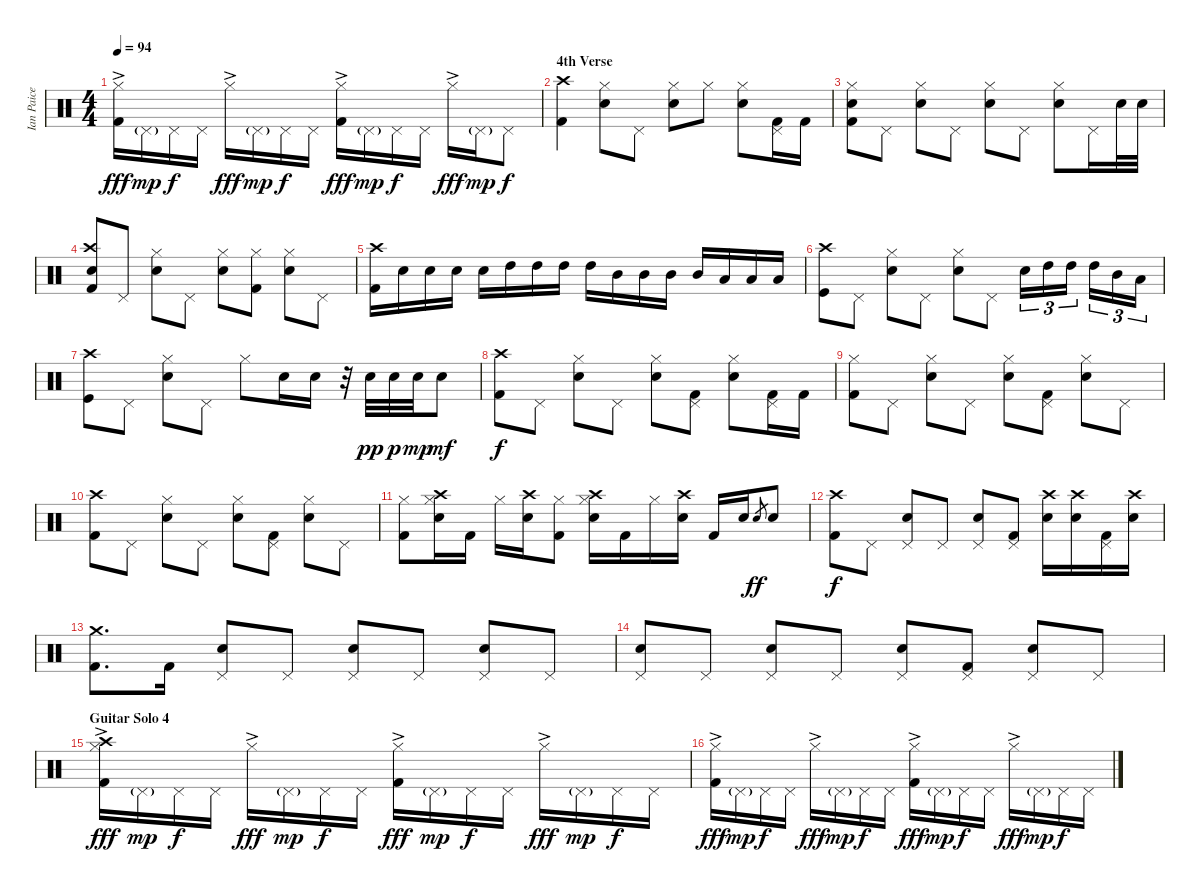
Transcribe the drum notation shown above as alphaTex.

\track ("Ian Paice (Drums)" "Ian Paice ") {instrument percussion}
\staff {score}
\articulation defaults
\ts (4 4)
\tempo 94
\clef neutral
\ks c
("Hi-Hat (closed)"{ac} "Kick (hit) 2").16{dy fff} "Pedal Hi-Hat (hit)"{g}.16{dy mp} "Pedal Hi-Hat (hit)".16{dy f} "Pedal Hi-Hat (hit)".16 "Hi-Hat (closed)"{ac}.16{dy fff} "Pedal Hi-Hat (hit)"{g}.16{dy mp} "Pedal Hi-Hat (hit)".16{dy f} "Pedal Hi-Hat (hit)".16 ("Hi-Hat (closed)"{ac} "Kick (hit) 2").16{dy fff} "Pedal Hi-Hat (hit)"{g}.16{dy mp} "Pedal Hi-Hat (hit)".16{dy f} "Pedal Hi-Hat (hit)".16 "Hi-Hat (closed)"{ac}.16{dy fff} "Pedal Hi-Hat (hit)"{g}.16{dy mp} "Pedal Hi-Hat (hit)".8{dy f} |
\section ("" "4th Verse")
("Crash high (hit)" "Kick (hit) 2").4 ("Hi-Hat (closed)" "Electric Snare (hit)").8 "Pedal Hi-Hat (hit)".8 ("Hi-Hat (closed)" "Electric Snare (hit)").8 "Hi-Hat (closed)".8 ("Hi-Hat (closed)" "Electric Snare (hit)").8 ("Pedal Hi-Hat (hit)" "Kick (hit) 2").16 "Kick (hit) 2".16 |
("Hi-Hat (closed)" "Electric Snare (hit)" "Kick (hit) 2").8 "Pedal Hi-Hat (hit)".8 ("Hi-Hat (closed)" "Electric Snare (hit)").8 "Pedal Hi-Hat (hit)".8 ("Hi-Hat (closed)" "Electric Snare (hit)").8 "Pedal Hi-Hat (hit)".8 ("Hi-Hat (closed)" "Electric Snare (hit)").8 "Pedal Hi-Hat (hit)".16 "Electric Snare (hit)".32 "Electric Snare (hit)".32 |
("Crash high (hit)" "Electric Snare (hit)" "Kick (hit) 2").8 "Pedal Hi-Hat (hit)".8 ("Hi-Hat (closed)" "Electric Snare (hit)").8 "Pedal Hi-Hat (hit)".8 ("Hi-Hat (closed)" "Electric Snare (hit)").8 ("Hi-Hat (closed)" "Kick (hit) 2").8 ("Hi-Hat (closed)" "Electric Snare (hit)").8 "Pedal Hi-Hat (hit)".8 |
("Crash high (hit)" "Kick (hit) 2").16 "Electric Snare (hit)".16 "Electric Snare (hit)".16 "Electric Snare (hit)".16 "Electric Snare (hit)".16 "High Tom (hit)".16 "High Tom (hit)".16 "High Tom (hit)".16 "High Tom (hit)".16 "Mid Tom (hit)".16 "Mid Tom (hit)".16 "Mid Tom (hit)".16 "Mid Tom (hit)".16 "Low Tom (hit)".16 "Low Tom (hit)".16 "Low Tom (hit)".16 |
("Crash high (hit)" "Kick (hit)").8 "Pedal Hi-Hat (hit)".8 ("Hi-Hat (closed)" "Electric Snare (hit)").8 "Pedal Hi-Hat (hit)".8 ("Hi-Hat (closed)" "Electric Snare (hit)").8 "Pedal Hi-Hat (hit)".8 "Electric Snare (hit)".16{tu (3 2)} "High Tom (hit)".16{tu (3 2)} "High Tom (hit)".16{tu (3 2)} "High Tom (hit)".16{tu (3 2)} "Mid Tom (hit)".16{tu (3 2)} "Low Tom (hit)".16{tu (3 2)} |
("Crash high (hit)" "Kick (hit)").8 "Pedal Hi-Hat (hit)".8 ("Hi-Hat (closed)" "Electric Snare (hit)").8 "Pedal Hi-Hat (hit)".8 "Hi-Hat (closed)".8 "Electric Snare (hit)".16 "Electric Snare (hit)".16 r.32 "Electric Snare (hit)".32{dy pp} "Electric Snare (hit)".32{dy p} "Electric Snare (hit)".32{dy mp} "Electric Snare (hit)".8{dy mf} |
("Crash high (hit)" "Kick (hit) 2").8{dy f} "Pedal Hi-Hat (hit)".8 ("Hi-Hat (closed)" "Electric Snare (hit)").8 "Pedal Hi-Hat (hit)".8 ("Hi-Hat (closed)" "Electric Snare (hit)").8 ("Pedal Hi-Hat (hit)" "Kick (hit) 2").8 ("Hi-Hat (closed)" "Electric Snare (hit)").8 ("Pedal Hi-Hat (hit)" "Kick (hit) 2").16 "Kick (hit) 2".16 |
("Hi-Hat (closed)" "Kick (hit) 2").8 "Pedal Hi-Hat (hit)".8 ("Hi-Hat (closed)" "Electric Snare (hit)").8 "Pedal Hi-Hat (hit)".8 ("Hi-Hat (closed)" "Electric Snare (hit)").8 ("Pedal Hi-Hat (hit)" "Kick (hit) 2").8 ("Hi-Hat (closed)" "Electric Snare (hit)").8 "Pedal Hi-Hat (hit)".8 |
("Crash high (hit)" "Kick (hit) 2").8 "Pedal Hi-Hat (hit)".8 ("Hi-Hat (closed)" "Electric Snare (hit)").8 "Pedal Hi-Hat (hit)".8 ("Hi-Hat (closed)" "Electric Snare (hit)").8 ("Pedal Hi-Hat (hit)" "Kick (hit) 2").8 ("Hi-Hat (closed)" "Electric Snare (hit)").8 "Pedal Hi-Hat (hit)".8 |
("Hi-Hat (closed)" "Kick (hit) 2").8 ("Crash high (hit)" "Hi-Hat (closed)" "Electric Snare (hit)").16 "Kick (hit) 2".16 "Hi-Hat (closed)".16 ("Crash high (hit)" "Electric Snare (hit)").16 ("Hi-Hat (closed)" "Kick (hit) 2").8 ("Crash high (hit)" "Hi-Hat (closed)" "Electric Snare (hit)").16 "Kick (hit) 2".16 "Hi-Hat (closed)".16 ("Crash high (hit)" "Electric Snare (hit)").16 "Kick (hit) 2".16 "Electric Snare (hit)".16 "Electric Snare (hit)".8{gr dy ff} "Electric Snare (hit)".8 |
("Crash high (hit)" "Kick (hit) 2").8{dy f} "Pedal Hi-Hat (hit)".8 ("Pedal Hi-Hat (hit)" "Electric Snare (hit)").8 "Pedal Hi-Hat (hit)".8 ("Pedal Hi-Hat (hit)" "Electric Snare (hit)").8 ("Pedal Hi-Hat (hit)" "Kick (hit) 2").8 ("Crash high (hit)" "Electric Snare (hit)").16 ("Crash high (hit)" "Electric Snare (hit)").16 ("Pedal Hi-Hat (hit)" "Kick (hit) 2").16 ("Crash high (hit)" "Electric Snare (hit)").16 |
("Crash medium (hit)" "Kick (hit) 2").8{d} "Kick (hit) 2".16 ("Pedal Hi-Hat (hit)" "Electric Snare (hit)").8 "Pedal Hi-Hat (hit)".8 ("Pedal Hi-Hat (hit)" "Electric Snare (hit)").8 "Pedal Hi-Hat (hit)".8 ("Pedal Hi-Hat (hit)" "Electric Snare (hit)").8 "Pedal Hi-Hat (hit)".8 |
("Pedal Hi-Hat (hit)" "Electric Snare (hit)").8 "Pedal Hi-Hat (hit)".8 ("Pedal Hi-Hat (hit)" "Electric Snare (hit)").8 "Pedal Hi-Hat (hit)".8 ("Pedal Hi-Hat (hit)" "Electric Snare (hit)").8 ("Pedal Hi-Hat (hit)" "Kick (hit) 2").8 ("Pedal Hi-Hat (hit)" "Electric Snare (hit)").8 "Pedal Hi-Hat (hit)".8 |
\section ("" "Guitar Solo 4")
("Crash high (hit)" "Hi-Hat (closed)"{ac} "Kick (hit) 2").16{dy fff} "Pedal Hi-Hat (hit)"{g}.16{dy mp} "Pedal Hi-Hat (hit)".16{dy f} "Pedal Hi-Hat (hit)".16 "Hi-Hat (closed)"{ac}.16{dy fff} "Pedal Hi-Hat (hit)"{g}.16{dy mp} "Pedal Hi-Hat (hit)".16{dy f} "Pedal Hi-Hat (hit)".16 ("Hi-Hat (closed)"{ac} "Kick (hit) 2").16{dy fff} "Pedal Hi-Hat (hit)"{g}.16{dy mp} "Pedal Hi-Hat (hit)".16{dy f} "Pedal Hi-Hat (hit)".16 "Hi-Hat (closed)"{ac}.16{dy fff} "Pedal Hi-Hat (hit)"{g}.16{dy mp} "Pedal Hi-Hat (hit)".16{dy f} "Pedal Hi-Hat (hit)".16 |
("Hi-Hat (closed)"{ac} "Kick (hit) 2").16{dy fff} "Pedal Hi-Hat (hit)"{g}.16{dy mp} "Pedal Hi-Hat (hit)".16{dy f} "Pedal Hi-Hat (hit)".16 "Hi-Hat (closed)"{ac}.16{dy fff} "Pedal Hi-Hat (hit)"{g}.16{dy mp} "Pedal Hi-Hat (hit)".16{dy f} "Pedal Hi-Hat (hit)".16 ("Hi-Hat (closed)"{ac} "Kick (hit) 2").16{dy fff} "Pedal Hi-Hat (hit)"{g}.16{dy mp} "Pedal Hi-Hat (hit)".16{dy f} "Pedal Hi-Hat (hit)".16 "Hi-Hat (closed)"{ac}.16{dy fff} "Pedal Hi-Hat (hit)"{g}.16{dy mp} "Pedal Hi-Hat (hit)".16{dy f} "Pedal Hi-Hat (hit)".16
